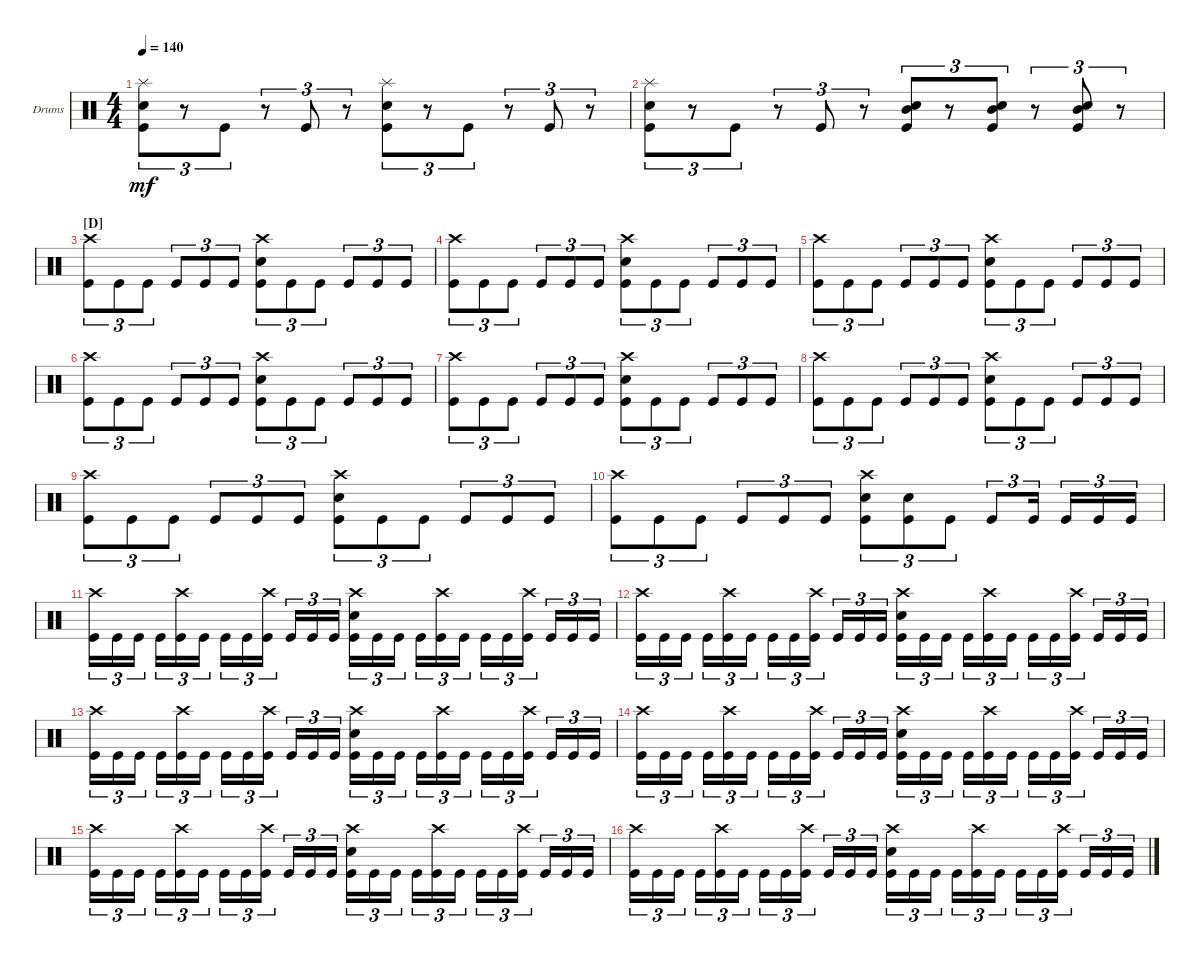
\bracketExtendMode groupsimilarinstruments
\firstSystemTrackNameOrientation horizontal
\otherSystemsTrackNameOrientation horizontal
\track ("Drumkit" "Drums") {instrument percussion}
\staff {score}
\articulation defaults
\ts (4 4)
\tempo 140
\clef neutral
\ks c
("Kick (hit)" "Snare (hit) 2" "Splash (hit)").8{tu (3 2) dy mf} r.8{tu (3 2)} "Kick (hit)".8{tu (3 2)} r.8{tu (3 2)} "Kick (hit)".8{tu (3 2)} r.8{tu (3 2)} ("Snare (hit) 2" "Kick (hit)" "Splash (hit)").8{tu (3 2)} r.8{tu (3 2)} "Kick (hit)".8{tu (3 2)} r.8{tu (3 2)} "Kick (hit)".8{tu (3 2)} r.8{tu (3 2)} |
("Kick (hit)" "Snare (hit) 2" "Splash (hit)").8{tu (3 2)} r.8{tu (3 2)} "Kick (hit)".8{tu (3 2)} r.8{tu (3 2)} "Kick (hit)".8{tu (3 2)} r.8{tu (3 2)} ("Snare (hit) 2" "Kick (hit)" "Mid Tom (hit)").8{tu (3 2)} r.8{tu (3 2)} ("Kick (hit)" "Snare (hit) 2" "Mid Tom (hit)").8{tu (3 2)} r.8{tu (3 2)} ("Kick (hit)" "Snare (hit) 2" "Mid Tom (hit)").8{tu (3 2)} r.8{tu (3 2)} |
\section ("D" "")
("Kick (hit)" "Crash high (hit)").8{tu (3 2)} "Kick (hit)".8{tu (3 2)} "Kick (hit)".8{tu (3 2)} "Kick (hit)".8{tu (3 2)} "Kick (hit)".8{tu (3 2)} "Kick (hit)".8{tu (3 2)} ("Kick (hit)" "Snare (hit) 2" "Crash high (hit)").8{tu (3 2)} "Kick (hit)".8{tu (3 2)} "Kick (hit)".8{tu (3 2)} "Kick (hit)".8{tu (3 2)} "Kick (hit)".8{tu (3 2)} "Kick (hit)".8{tu (3 2)} |
("Kick (hit)" "Crash high (hit)").8{tu (3 2)} "Kick (hit)".8{tu (3 2)} "Kick (hit)".8{tu (3 2)} "Kick (hit)".8{tu (3 2)} "Kick (hit)".8{tu (3 2)} "Kick (hit)".8{tu (3 2)} ("Kick (hit)" "Snare (hit) 2" "Crash high (hit)").8{tu (3 2)} "Kick (hit)".8{tu (3 2)} "Kick (hit)".8{tu (3 2)} "Kick (hit)".8{tu (3 2)} "Kick (hit)".8{tu (3 2)} "Kick (hit)".8{tu (3 2)} |
("Kick (hit)" "Crash high (hit)").8{tu (3 2)} "Kick (hit)".8{tu (3 2)} "Kick (hit)".8{tu (3 2)} "Kick (hit)".8{tu (3 2)} "Kick (hit)".8{tu (3 2)} "Kick (hit)".8{tu (3 2)} ("Kick (hit)" "Snare (hit) 2" "Crash high (hit)").8{tu (3 2)} "Kick (hit)".8{tu (3 2)} "Kick (hit)".8{tu (3 2)} "Kick (hit)".8{tu (3 2)} "Kick (hit)".8{tu (3 2)} "Kick (hit)".8{tu (3 2)} |
("Kick (hit)" "Crash high (hit)").8{tu (3 2)} "Kick (hit)".8{tu (3 2)} "Kick (hit)".8{tu (3 2)} "Kick (hit)".8{tu (3 2)} "Kick (hit)".8{tu (3 2)} "Kick (hit)".8{tu (3 2)} ("Kick (hit)" "Snare (hit) 2" "Crash high (hit)").8{tu (3 2)} "Kick (hit)".8{tu (3 2)} "Kick (hit)".8{tu (3 2)} "Kick (hit)".8{tu (3 2)} "Kick (hit)".8{tu (3 2)} "Kick (hit)".8{tu (3 2)} |
("Kick (hit)" "Crash high (hit)").8{tu (3 2)} "Kick (hit)".8{tu (3 2)} "Kick (hit)".8{tu (3 2)} "Kick (hit)".8{tu (3 2)} "Kick (hit)".8{tu (3 2)} "Kick (hit)".8{tu (3 2)} ("Kick (hit)" "Snare (hit) 2" "Crash high (hit)").8{tu (3 2)} "Kick (hit)".8{tu (3 2)} "Kick (hit)".8{tu (3 2)} "Kick (hit)".8{tu (3 2)} "Kick (hit)".8{tu (3 2)} "Kick (hit)".8{tu (3 2)} |
("Kick (hit)" "Crash high (hit)").8{tu (3 2)} "Kick (hit)".8{tu (3 2)} "Kick (hit)".8{tu (3 2)} "Kick (hit)".8{tu (3 2)} "Kick (hit)".8{tu (3 2)} "Kick (hit)".8{tu (3 2)} ("Kick (hit)" "Snare (hit) 2" "Crash high (hit)").8{tu (3 2)} "Kick (hit)".8{tu (3 2)} "Kick (hit)".8{tu (3 2)} "Kick (hit)".8{tu (3 2)} "Kick (hit)".8{tu (3 2)} "Kick (hit)".8{tu (3 2)} |
("Kick (hit)" "Crash high (hit)").8{tu (3 2)} "Kick (hit)".8{tu (3 2)} "Kick (hit)".8{tu (3 2)} "Kick (hit)".8{tu (3 2)} "Kick (hit)".8{tu (3 2)} "Kick (hit)".8{tu (3 2)} ("Kick (hit)" "Snare (hit) 2" "Crash high (hit)").8{tu (3 2)} "Kick (hit)".8{tu (3 2)} "Kick (hit)".8{tu (3 2)} "Kick (hit)".8{tu (3 2)} "Kick (hit)".8{tu (3 2)} "Kick (hit)".8{tu (3 2)} |
("Kick (hit)" "Crash high (hit)").8{tu (3 2)} "Kick (hit)".8{tu (3 2)} "Kick (hit)".8{tu (3 2)} "Kick (hit)".8{tu (3 2)} "Kick (hit)".8{tu (3 2)} "Kick (hit)".8{tu (3 2)} ("Kick (hit)" "Snare (hit) 2" "Crash high (hit)").8{tu (3 2)} ("Kick (hit)" "Snare (hit) 2").8{tu (3 2)} "Kick (hit)".8{tu (3 2)} "Kick (hit)".8{tu (3 2)} "Kick (hit)".16{tu (3 2)} "Kick (hit)".16{tu (3 2)} "Kick (hit)".16{tu (3 2)} "Kick (hit)".16{tu (3 2)} |
("Kick (hit)" "Crash high (hit)").16{tu (3 2)} "Kick (hit)".16{tu (3 2)} "Kick (hit)".16{tu (3 2)} "Kick (hit)".16{tu (3 2)} ("Kick (hit)" "Crash high (hit)").16{tu (3 2)} "Kick (hit)".16{tu (3 2)} "Kick (hit)".16{tu (3 2)} "Kick (hit)".16{tu (3 2)} ("Kick (hit)" "Crash high (hit)").16{tu (3 2)} "Kick (hit)".16{tu (3 2)} "Kick (hit)".16{tu (3 2)} "Kick (hit)".16{tu (3 2)} ("Kick (hit)" "Snare (hit) 2" "Crash high (hit)").16{tu (3 2)} "Kick (hit)".16{tu (3 2)} "Kick (hit)".16{tu (3 2)} "Kick (hit)".16{tu (3 2)} ("Kick (hit)" "Crash high (hit)").16{tu (3 2)} "Kick (hit)".16{tu (3 2)} "Kick (hit)".16{tu (3 2)} "Kick (hit)".16{tu (3 2)} ("Kick (hit)" "Crash high (hit)").16{tu (3 2)} "Kick (hit)".16{tu (3 2)} "Kick (hit)".16{tu (3 2)} "Kick (hit)".16{tu (3 2)} |
("Kick (hit)" "Crash high (hit)").16{tu (3 2)} "Kick (hit)".16{tu (3 2)} "Kick (hit)".16{tu (3 2)} "Kick (hit)".16{tu (3 2)} ("Kick (hit)" "Crash high (hit)").16{tu (3 2)} "Kick (hit)".16{tu (3 2)} "Kick (hit)".16{tu (3 2)} "Kick (hit)".16{tu (3 2)} ("Kick (hit)" "Crash high (hit)").16{tu (3 2)} "Kick (hit)".16{tu (3 2)} "Kick (hit)".16{tu (3 2)} "Kick (hit)".16{tu (3 2)} ("Kick (hit)" "Snare (hit) 2" "Crash high (hit)").16{tu (3 2)} "Kick (hit)".16{tu (3 2)} "Kick (hit)".16{tu (3 2)} "Kick (hit)".16{tu (3 2)} ("Kick (hit)" "Crash high (hit)").16{tu (3 2)} "Kick (hit)".16{tu (3 2)} "Kick (hit)".16{tu (3 2)} "Kick (hit)".16{tu (3 2)} ("Kick (hit)" "Crash high (hit)").16{tu (3 2)} "Kick (hit)".16{tu (3 2)} "Kick (hit)".16{tu (3 2)} "Kick (hit)".16{tu (3 2)} |
("Kick (hit)" "Crash high (hit)").16{tu (3 2)} "Kick (hit)".16{tu (3 2)} "Kick (hit)".16{tu (3 2)} "Kick (hit)".16{tu (3 2)} ("Kick (hit)" "Crash high (hit)").16{tu (3 2)} "Kick (hit)".16{tu (3 2)} "Kick (hit)".16{tu (3 2)} "Kick (hit)".16{tu (3 2)} ("Kick (hit)" "Crash high (hit)").16{tu (3 2)} "Kick (hit)".16{tu (3 2)} "Kick (hit)".16{tu (3 2)} "Kick (hit)".16{tu (3 2)} ("Kick (hit)" "Snare (hit) 2" "Crash high (hit)").16{tu (3 2)} "Kick (hit)".16{tu (3 2)} "Kick (hit)".16{tu (3 2)} "Kick (hit)".16{tu (3 2)} ("Kick (hit)" "Crash high (hit)").16{tu (3 2)} "Kick (hit)".16{tu (3 2)} "Kick (hit)".16{tu (3 2)} "Kick (hit)".16{tu (3 2)} ("Kick (hit)" "Crash high (hit)").16{tu (3 2)} "Kick (hit)".16{tu (3 2)} "Kick (hit)".16{tu (3 2)} "Kick (hit)".16{tu (3 2)} |
("Kick (hit)" "Crash high (hit)").16{tu (3 2)} "Kick (hit)".16{tu (3 2)} "Kick (hit)".16{tu (3 2)} "Kick (hit)".16{tu (3 2)} ("Kick (hit)" "Crash high (hit)").16{tu (3 2)} "Kick (hit)".16{tu (3 2)} "Kick (hit)".16{tu (3 2)} "Kick (hit)".16{tu (3 2)} ("Kick (hit)" "Crash high (hit)").16{tu (3 2)} "Kick (hit)".16{tu (3 2)} "Kick (hit)".16{tu (3 2)} "Kick (hit)".16{tu (3 2)} ("Kick (hit)" "Snare (hit) 2" "Crash high (hit)").16{tu (3 2)} "Kick (hit)".16{tu (3 2)} "Kick (hit)".16{tu (3 2)} "Kick (hit)".16{tu (3 2)} ("Kick (hit)" "Crash high (hit)").16{tu (3 2)} "Kick (hit)".16{tu (3 2)} "Kick (hit)".16{tu (3 2)} "Kick (hit)".16{tu (3 2)} ("Kick (hit)" "Crash high (hit)").16{tu (3 2)} "Kick (hit)".16{tu (3 2)} "Kick (hit)".16{tu (3 2)} "Kick (hit)".16{tu (3 2)} |
("Kick (hit)" "Crash high (hit)").16{tu (3 2)} "Kick (hit)".16{tu (3 2)} "Kick (hit)".16{tu (3 2)} "Kick (hit)".16{tu (3 2)} ("Kick (hit)" "Crash high (hit)").16{tu (3 2)} "Kick (hit)".16{tu (3 2)} "Kick (hit)".16{tu (3 2)} "Kick (hit)".16{tu (3 2)} ("Kick (hit)" "Crash high (hit)").16{tu (3 2)} "Kick (hit)".16{tu (3 2)} "Kick (hit)".16{tu (3 2)} "Kick (hit)".16{tu (3 2)} ("Kick (hit)" "Snare (hit) 2" "Crash high (hit)").16{tu (3 2)} "Kick (hit)".16{tu (3 2)} "Kick (hit)".16{tu (3 2)} "Kick (hit)".16{tu (3 2)} ("Kick (hit)" "Crash high (hit)").16{tu (3 2)} "Kick (hit)".16{tu (3 2)} "Kick (hit)".16{tu (3 2)} "Kick (hit)".16{tu (3 2)} ("Kick (hit)" "Crash high (hit)").16{tu (3 2)} "Kick (hit)".16{tu (3 2)} "Kick (hit)".16{tu (3 2)} "Kick (hit)".16{tu (3 2)} |
("Kick (hit)" "Crash high (hit)").16{tu (3 2)} "Kick (hit)".16{tu (3 2)} "Kick (hit)".16{tu (3 2)} "Kick (hit)".16{tu (3 2)} ("Kick (hit)" "Crash high (hit)").16{tu (3 2)} "Kick (hit)".16{tu (3 2)} "Kick (hit)".16{tu (3 2)} "Kick (hit)".16{tu (3 2)} ("Kick (hit)" "Crash high (hit)").16{tu (3 2)} "Kick (hit)".16{tu (3 2)} "Kick (hit)".16{tu (3 2)} "Kick (hit)".16{tu (3 2)} ("Kick (hit)" "Snare (hit) 2" "Crash high (hit)").16{tu (3 2)} "Kick (hit)".16{tu (3 2)} "Kick (hit)".16{tu (3 2)} "Kick (hit)".16{tu (3 2)} ("Kick (hit)" "Crash high (hit)").16{tu (3 2)} "Kick (hit)".16{tu (3 2)} "Kick (hit)".16{tu (3 2)} "Kick (hit)".16{tu (3 2)} ("Kick (hit)" "Crash high (hit)").16{tu (3 2)} "Kick (hit)".16{tu (3 2)} "Kick (hit)".16{tu (3 2)} "Kick (hit)".16{tu (3 2)}
